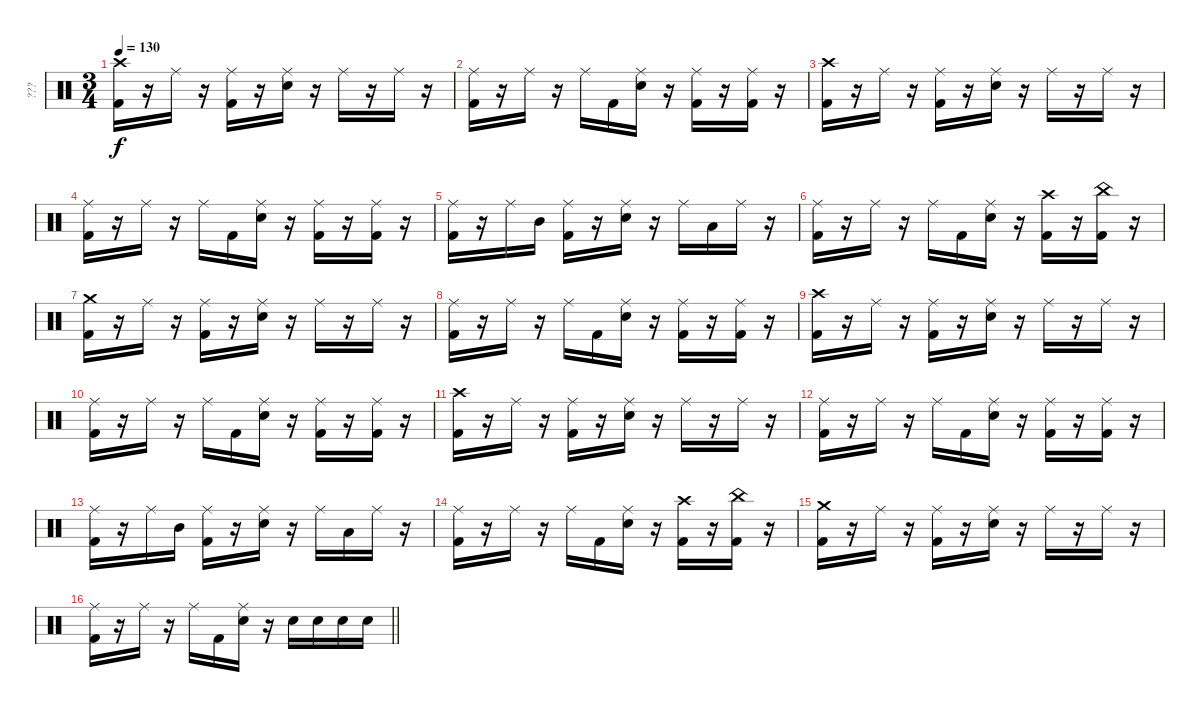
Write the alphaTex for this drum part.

\track ("???" "???") {instrument percussion}
\staff {score}
\articulation defaults
\ts (3 4)
\tempo 130
\clef neutral
\ks c
("Crash high (hit)" "Kick (hit) 2").16{dy f} r.16 "Ride (middle)".16 r.16 ("Ride (middle)" "Kick (hit) 2").16 r.16 ("Ride (middle)" "Electric Snare (hit)").16 r.16 "Ride (middle)".16 r.16 "Ride (middle)".16 r.16 |
("Ride (middle)" "Kick (hit) 2").16 r.16 "Ride (middle)".16 r.16 "Ride (middle)".16 "Kick (hit) 2".16 ("Ride (middle)" "Electric Snare (hit)").16 r.16 ("Ride (middle)" "Kick (hit) 2").16 r.16 ("Ride (middle)" "Kick (hit) 2").16 r.16 |
("Crash high (hit)" "Kick (hit) 2").16 r.16 "Ride (middle)".16 r.16 ("Ride (middle)" "Kick (hit) 2").16 r.16 ("Ride (middle)" "Electric Snare (hit)").16 r.16 "Ride (middle)".16 r.16 "Ride (middle)".16 r.16 |
("Ride (middle)" "Kick (hit) 2").16 r.16 "Ride (middle)".16 r.16 "Ride (middle)".16 "Kick (hit) 2".16 ("Ride (middle)" "Electric Snare (hit)").16 r.16 ("Ride (middle)" "Kick (hit) 2").16 r.16 ("Ride (middle)" "Kick (hit) 2").16 r.16 |
("Ride (middle)" "Kick (hit) 2").16 r.16 "Ride (middle)".16 "Mid Tom (hit)".16 ("Ride (middle)" "Kick (hit) 2").16 r.16 ("Ride (middle)" "Electric Snare (hit)").16 r.16 "Ride (middle)".16 "Low Tom (hit)".16 "Ride (middle)".16 r.16 |
("Ride (middle)" "Kick (hit) 2").16 r.16 "Ride (middle)".16 r.16 "Ride (middle)".16 "Kick (hit) 2".16 ("Ride (middle)" "Electric Snare (hit)").16 r.16 ("Crash high (hit)" "Kick (hit) 2").16 r.16 ("China (hit)" "Kick (hit) 2").16 r.16 |
("Crash medium (hit)" "Kick (hit) 2").16 r.16 "Ride (middle)".16 r.16 ("Ride (middle)" "Kick (hit) 2").16 r.16 ("Ride (middle)" "Electric Snare (hit)").16 r.16 "Ride (middle)".16 r.16 "Ride (middle)".16 r.16 |
("Ride (middle)" "Kick (hit) 2").16 r.16 "Ride (middle)".16 r.16 "Ride (middle)".16 "Kick (hit) 2".16 ("Ride (middle)" "Electric Snare (hit)").16 r.16 ("Ride (middle)" "Kick (hit) 2").16 r.16 ("Ride (middle)" "Kick (hit) 2").16 r.16 |
("Crash high (hit)" "Kick (hit) 2").16 r.16 "Ride (middle)".16 r.16 ("Ride (middle)" "Kick (hit) 2").16 r.16 ("Ride (middle)" "Electric Snare (hit)").16 r.16 "Ride (middle)".16 r.16 "Ride (middle)".16 r.16 |
("Ride (middle)" "Kick (hit) 2").16 r.16 "Ride (middle)".16 r.16 "Ride (middle)".16 "Kick (hit) 2".16 ("Ride (middle)" "Electric Snare (hit)").16 r.16 ("Ride (middle)" "Kick (hit) 2").16 r.16 ("Ride (middle)" "Kick (hit) 2").16 r.16 |
("Crash high (hit)" "Kick (hit) 2").16 r.16 "Ride (middle)".16 r.16 ("Ride (middle)" "Kick (hit) 2").16 r.16 ("Ride (middle)" "Electric Snare (hit)").16 r.16 "Ride (middle)".16 r.16 "Ride (middle)".16 r.16 |
("Ride (middle)" "Kick (hit) 2").16 r.16 "Ride (middle)".16 r.16 "Ride (middle)".16 "Kick (hit) 2".16 ("Ride (middle)" "Electric Snare (hit)").16 r.16 ("Ride (middle)" "Kick (hit) 2").16 r.16 ("Ride (middle)" "Kick (hit) 2").16 r.16 |
("Ride (middle)" "Kick (hit) 2").16 r.16 "Ride (middle)".16 "Mid Tom (hit)".16 ("Ride (middle)" "Kick (hit) 2").16 r.16 ("Ride (middle)" "Electric Snare (hit)").16 r.16 "Ride (middle)".16 "Low Tom (hit)".16 "Ride (middle)".16 r.16 |
("Ride (middle)" "Kick (hit) 2").16 r.16 "Ride (middle)".16 r.16 "Ride (middle)".16 "Kick (hit) 2".16 ("Ride (middle)" "Electric Snare (hit)").16 r.16 ("Crash high (hit)" "Kick (hit) 2").16 r.16 ("China (hit)" "Kick (hit) 2").16 r.16 |
("Crash medium (hit)" "Kick (hit) 2").16 r.16 "Ride (middle)".16 r.16 ("Ride (middle)" "Kick (hit) 2").16 r.16 ("Ride (middle)" "Electric Snare (hit)").16 r.16 "Ride (middle)".16 r.16 "Ride (middle)".16 r.16 |
\barLineRight lightlight
("Ride (middle)" "Kick (hit) 2").16 r.16 "Ride (middle)".16 r.16 "Ride (middle)".16 "Kick (hit) 2".16 ("Ride (middle)" "Electric Snare (hit)").16 r.16 "Electric Snare (hit)".16 "Electric Snare (hit)".16 "Electric Snare (hit)".16 "Electric Snare (hit)".16
